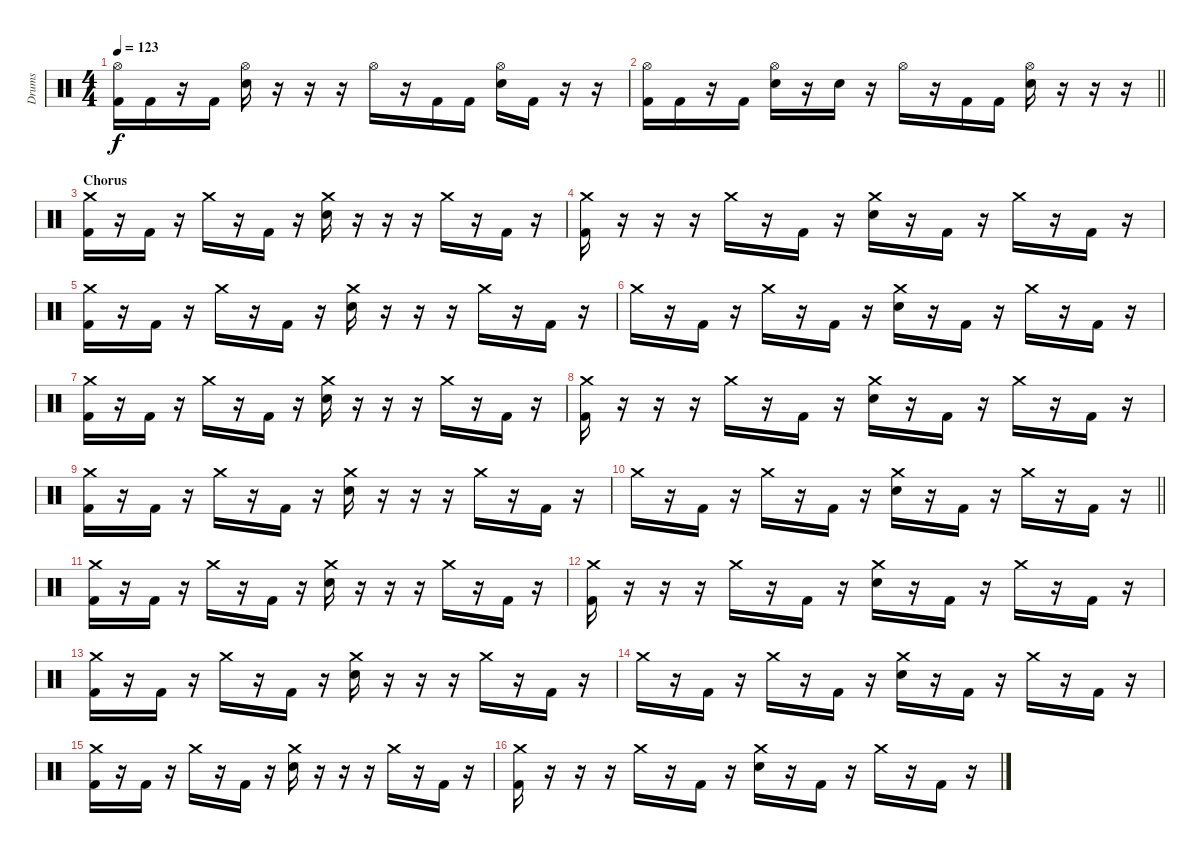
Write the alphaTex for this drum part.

\track ("Drums" "Drums") {instrument percussion}
\staff {score}
\articulation defaults
\ts (4 4)
\tempo 123
\clef neutral
\ks c
("Hi-Hat (open)" "Kick (hit) 2").16{dy f} "Kick (hit) 2".16 r.16 "Kick (hit) 2".16 ("Hi-Hat (open)" "Electric Snare (hit)").16 r.16 r.16 r.16 "Hi-Hat (open)".16 r.16 "Kick (hit) 2".16 "Kick (hit) 2".16 ("Hi-Hat (open)" "Electric Snare (hit)").16 "Kick (hit) 2".16 r.16 r.16 |
\barLineRight lightlight
("Hi-Hat (open)" "Kick (hit) 2").16 "Kick (hit) 2".16 r.16 "Kick (hit) 2".16 ("Hi-Hat (open)" "Electric Snare (hit)").16 r.16 "Electric Snare (hit)".16 r.16 "Hi-Hat (open)".16 r.16 "Kick (hit) 2".16 "Kick (hit) 2".16 ("Hi-Hat (open)" "Electric Snare (hit)").16 r.16 r.16 r.16 |
\section ("" "Chorus")
("Crash medium (hit)" "Kick (hit) 2").16 r.16 "Kick (hit) 2".16 r.16 "Crash medium (hit)".16 r.16 "Kick (hit) 2".16 r.16 ("Crash medium (hit)" "Electric Snare (hit)").16 r.16 r.16 r.16 "Crash medium (hit)".16 r.16 "Kick (hit) 2".16 r.16 |
("Crash medium (hit)" "Kick (hit) 2").16 r.16 r.16 r.16 "Crash medium (hit)".16 r.16 "Kick (hit) 2".16 r.16 ("Crash medium (hit)" "Electric Snare (hit)").16 r.16 "Kick (hit) 2".16 r.16 "Crash medium (hit)".16 r.16 "Kick (hit) 2".16 r.16 |
("Crash medium (hit)" "Kick (hit) 2").16 r.16 "Kick (hit) 2".16 r.16 "Crash medium (hit)".16 r.16 "Kick (hit) 2".16 r.16 ("Crash medium (hit)" "Electric Snare (hit)").16 r.16 r.16 r.16 "Crash medium (hit)".16 r.16 "Kick (hit) 2".16 r.16 |
"Crash medium (hit)".16 r.16 "Kick (hit) 2".16 r.16 "Crash medium (hit)".16 r.16 "Kick (hit) 2".16 r.16 ("Crash medium (hit)" "Electric Snare (hit)").16 r.16 "Kick (hit) 2".16 r.16 "Crash medium (hit)".16 r.16 "Kick (hit) 2".16 r.16 |
("Crash medium (hit)" "Kick (hit) 2").16 r.16 "Kick (hit) 2".16 r.16 "Crash medium (hit)".16 r.16 "Kick (hit) 2".16 r.16 ("Crash medium (hit)" "Electric Snare (hit)").16 r.16 r.16 r.16 "Crash medium (hit)".16 r.16 "Kick (hit) 2".16 r.16 |
("Crash medium (hit)" "Kick (hit) 2").16 r.16 r.16 r.16 "Crash medium (hit)".16 r.16 "Kick (hit) 2".16 r.16 ("Crash medium (hit)" "Electric Snare (hit)").16 r.16 "Kick (hit) 2".16 r.16 "Crash medium (hit)".16 r.16 "Kick (hit) 2".16 r.16 |
("Crash medium (hit)" "Kick (hit) 2").16 r.16 "Kick (hit) 2".16 r.16 "Crash medium (hit)".16 r.16 "Kick (hit) 2".16 r.16 ("Crash medium (hit)" "Electric Snare (hit)").16 r.16 r.16 r.16 "Crash medium (hit)".16 r.16 "Kick (hit) 2".16 r.16 |
\barLineRight lightlight "Crash medium (hit)".16
r.16 "Kick (hit) 2".16 r.16 "Crash medium (hit)".16 r.16 "Kick (hit) 2".16 r.16 ("Crash medium (hit)" "Electric Snare (hit)").16 r.16 "Kick (hit) 2".16 r.16 "Crash medium (hit)".16 r.16 "Kick (hit) 2".16 r.16 |
("Crash medium (hit)" "Kick (hit) 2").16 r.16 "Kick (hit) 2".16 r.16 "Crash medium (hit)".16 r.16 "Kick (hit) 2".16 r.16 ("Crash medium (hit)" "Electric Snare (hit)").16 r.16 r.16 r.16 "Crash medium (hit)".16 r.16 "Kick (hit) 2".16 r.16 |
("Crash medium (hit)" "Kick (hit) 2").16 r.16 r.16 r.16 "Crash medium (hit)".16 r.16 "Kick (hit) 2".16 r.16 ("Crash medium (hit)" "Electric Snare (hit)").16 r.16 "Kick (hit) 2".16 r.16 "Crash medium (hit)".16 r.16 "Kick (hit) 2".16 r.16 |
("Crash medium (hit)" "Kick (hit) 2").16 r.16 "Kick (hit) 2".16 r.16 "Crash medium (hit)".16 r.16 "Kick (hit) 2".16 r.16 ("Crash medium (hit)" "Electric Snare (hit)").16 r.16 r.16 r.16 "Crash medium (hit)".16 r.16 "Kick (hit) 2".16 r.16 |
"Crash medium (hit)".16 r.16 "Kick (hit) 2".16 r.16 "Crash medium (hit)".16 r.16 "Kick (hit) 2".16 r.16 ("Crash medium (hit)" "Electric Snare (hit)").16 r.16 "Kick (hit) 2".16 r.16 "Crash medium (hit)".16 r.16 "Kick (hit) 2".16 r.16 |
("Crash medium (hit)" "Kick (hit) 2").16 r.16 "Kick (hit) 2".16 r.16 "Crash medium (hit)".16 r.16 "Kick (hit) 2".16 r.16 ("Crash medium (hit)" "Electric Snare (hit)").16 r.16 r.16 r.16 "Crash medium (hit)".16 r.16 "Kick (hit) 2".16 r.16 |
("Crash medium (hit)" "Kick (hit) 2").16 r.16 r.16 r.16 "Crash medium (hit)".16 r.16 "Kick (hit) 2".16 r.16 ("Crash medium (hit)" "Electric Snare (hit)").16 r.16 "Kick (hit) 2".16 r.16 "Crash medium (hit)".16 r.16 "Kick (hit) 2".16 r.16
